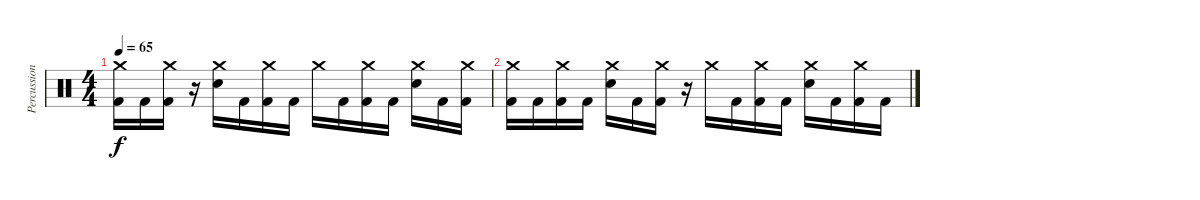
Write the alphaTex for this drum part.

\track ("Percussion" "Percussion") {instrument percussion}
\staff {score}
\articulation defaults
\ts (4 4)
\tempo 65
\clef neutral
\ks c
("Kick (hit) 2" "Crash medium (hit)").16{dy f} "Kick (hit) 2".16 ("Kick (hit) 2" "Crash medium (hit)").16 r.16 ("Snare (hit) 2" "Crash medium (hit)").16 "Kick (hit) 2".16 ("Kick (hit) 2" "Crash medium (hit)").16 "Kick (hit) 2".16 "Crash medium (hit)".16 "Kick (hit) 2".16 ("Kick (hit) 2" "Crash medium (hit)").16 "Kick (hit) 2".16 ("Snare (hit) 2" "Crash medium (hit)").16 "Kick (hit) 2".16 ("Kick (hit) 2" "Crash medium (hit)").16 |
("Kick (hit) 2" "Crash medium (hit)").16 "Kick (hit) 2".16 ("Kick (hit) 2" "Crash medium (hit)").16 "Kick (hit) 2".16 ("Snare (hit) 2" "Crash medium (hit)").16 "Kick (hit) 2".16 ("Kick (hit) 2" "Crash medium (hit)").16 r.16 "Crash medium (hit)".16 "Kick (hit) 2".16 ("Kick (hit) 2" "Crash medium (hit)").16 "Kick (hit) 2".16 ("Snare (hit) 2" "Crash medium (hit)").16 "Kick (hit) 2".16 ("Kick (hit) 2" "Crash medium (hit)").16 "Kick (hit) 2".16
